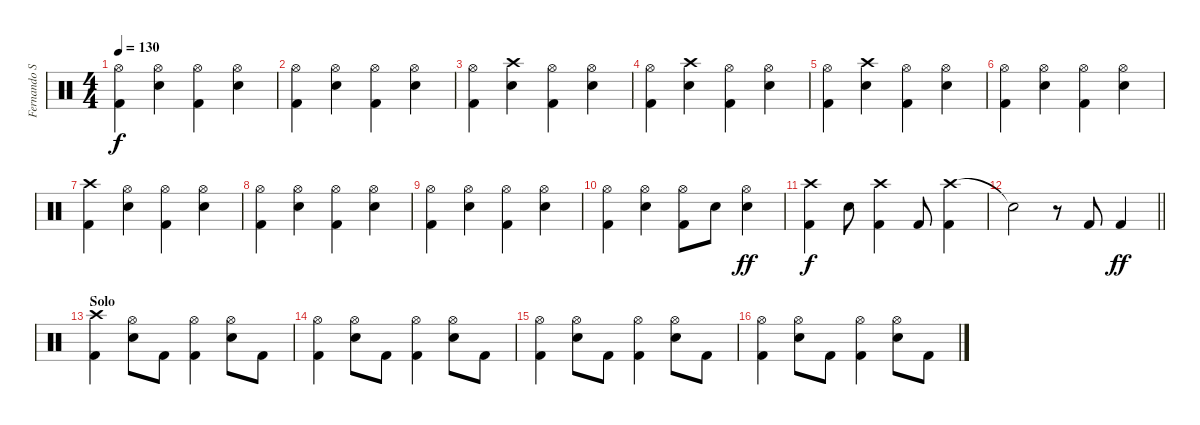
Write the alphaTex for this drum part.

\track ("Fernando Scarcella" "Fernando S") {instrument percussion}
\staff {score}
\articulation defaults
\ts (4 4)
\tempo 130
\clef neutral
\ks c
("Hi-Hat (open)" "Kick (hit) 2").4{dy f} ("Hi-Hat (open)" "Snare (hit) 2").4 ("Hi-Hat (open)" "Kick (hit) 2").4 ("Hi-Hat (open)" "Snare (hit) 2").4 |
("Hi-Hat (open)" "Kick (hit) 2").4 ("Hi-Hat (open)" "Snare (hit) 2").4 ("Hi-Hat (open)" "Kick (hit) 2").4 ("Hi-Hat (open)" "Snare (hit) 2").4 |
("Hi-Hat (open)" "Kick (hit) 2").4 ("Crash high (hit)" "Snare (hit) 2").4 ("Hi-Hat (open)" "Kick (hit) 2").4 ("Hi-Hat (open)" "Snare (hit) 2").4 |
("Hi-Hat (open)" "Kick (hit) 2").4 ("Crash high (hit)" "Snare (hit) 2").4 ("Hi-Hat (open)" "Kick (hit) 2").4 ("Hi-Hat (open)" "Snare (hit) 2").4 |
("Hi-Hat (open)" "Kick (hit) 2").4 ("Crash high (hit)" "Snare (hit) 2").4 ("Hi-Hat (open)" "Kick (hit) 2").4 ("Hi-Hat (open)" "Snare (hit) 2").4 |
("Hi-Hat (open)" "Kick (hit) 2").4 ("Hi-Hat (open)" "Snare (hit) 2").4 ("Hi-Hat (open)" "Kick (hit) 2").4 ("Hi-Hat (open)" "Snare (hit) 2").4 |
("Crash high (hit)" "Kick (hit) 2").4 ("Hi-Hat (open)" "Snare (hit) 2").4 ("Hi-Hat (open)" "Kick (hit) 2").4 ("Hi-Hat (open)" "Snare (hit) 2").4 |
("Hi-Hat (open)" "Kick (hit) 2").4 ("Hi-Hat (open)" "Snare (hit) 2").4 ("Hi-Hat (open)" "Kick (hit) 2").4 ("Hi-Hat (open)" "Snare (hit) 2").4 |
("Hi-Hat (open)" "Kick (hit) 2").4 ("Hi-Hat (open)" "Snare (hit) 2").4 ("Hi-Hat (open)" "Kick (hit) 2").4 ("Hi-Hat (open)" "Snare (hit) 2").4 |
("Hi-Hat (open)" "Kick (hit) 2").4 ("Hi-Hat (open)" "Snare (hit) 2").4 ("Hi-Hat (open)" "Kick (hit) 2").8 "Snare (hit) 2".8 ("Hi-Hat (open)" "Snare (hit) 2").4{dy ff} |
("Crash high (hit)" "Kick (hit) 2").4{dy f} "Snare (hit) 2".8 ("Crash high (hit)" "Kick (hit) 2").4 "Kick (hit) 2".8 ("Crash high (hit)" "Kick (hit) 2").4 |
\barLineRight lightlight "Snare (hit)"{t}.2
r.8 "Kick (hit) 2".8 "Kick (hit) 2".4{dy ff} |
\section ("" "Solo")
("Crash high (hit)" "Kick (hit) 2").4 ("Hi-Hat (open)" "Snare (hit) 2").8 "Kick (hit) 2".8 ("Hi-Hat (open)" "Kick (hit) 2").4 ("Hi-Hat (open)" "Snare (hit) 2").8 "Kick (hit) 2".8 |
("Hi-Hat (open)" "Kick (hit) 2").4 ("Hi-Hat (open)" "Snare (hit) 2").8 "Kick (hit) 2".8 ("Hi-Hat (open)" "Kick (hit) 2").4 ("Hi-Hat (open)" "Snare (hit) 2").8 "Kick (hit) 2".8 |
("Hi-Hat (open)" "Kick (hit) 2").4 ("Hi-Hat (open)" "Snare (hit) 2").8 "Kick (hit) 2".8 ("Hi-Hat (open)" "Kick (hit) 2").4 ("Hi-Hat (open)" "Snare (hit) 2").8 "Kick (hit) 2".8 |
("Hi-Hat (open)" "Kick (hit) 2").4 ("Hi-Hat (open)" "Snare (hit) 2").8 "Kick (hit) 2".8 ("Hi-Hat (open)" "Kick (hit) 2").4 ("Hi-Hat (open)" "Snare (hit) 2").8 "Kick (hit) 2".8
